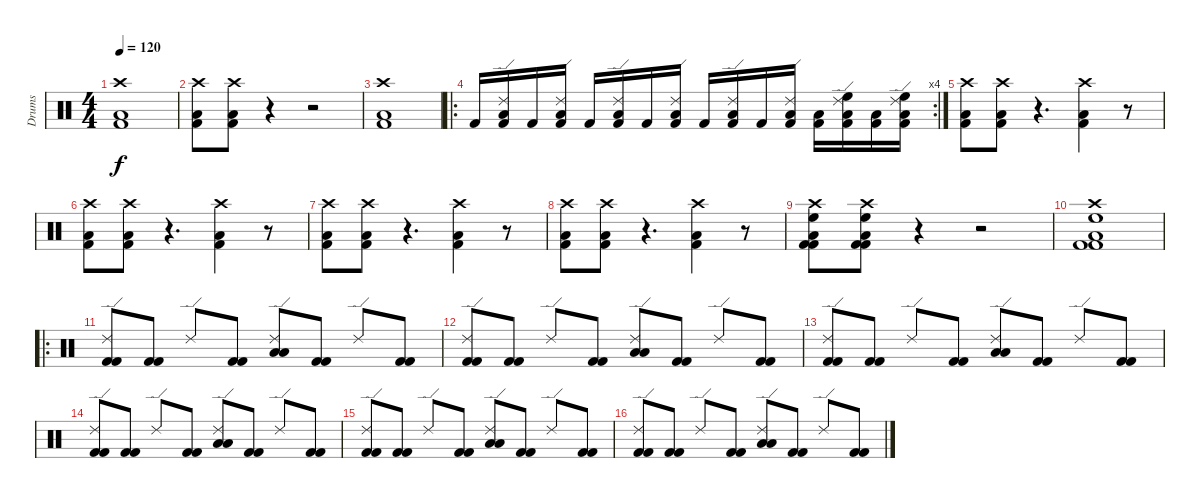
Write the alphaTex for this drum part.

\track ("Drums" "Drums") {instrument percussion}
\staff {score}
\articulation defaults
\ts (4 4)
\tempo 120
\clef neutral
\ks c
("Crash high (hit)" "Low Tom (hit)" "Kick (hit) 2").1{dy f} |
("Crash high (hit)" "Low Tom (hit)" "Kick (hit) 2").8 ("Crash high (hit)" "Low Tom (hit)" "Kick (hit) 2").8 r.4 r.2 |
("Crash high (hit)" "Low Tom (hit)" "Kick (hit) 2").1 |
\ro
\rc 4 "Kick (hit) 2".16
("Ride (edge) 2" "Low Tom (hit)" "Kick (hit) 2").16 "Kick (hit) 2".16 ("Ride (edge) 2" "Low Tom (hit)" "Kick (hit) 2").16 "Kick (hit) 2".16 ("Ride (edge) 2" "Low Tom (hit)" "Kick (hit) 2").16 "Kick (hit) 2".16 ("Ride (edge) 2" "Low Tom (hit)" "Kick (hit) 2").16 "Kick (hit) 2".16 ("Ride (edge) 2" "Low Tom (hit)" "Kick (hit) 2").16 "Kick (hit) 2".16 ("Ride (edge) 2" "Low Tom (hit)" "Kick (hit) 2").16 ("Low Floor Tom (hit)" "Kick (hit) 2").16 ("Ride (edge) 2" "High Floor Tom (hit)" "Low Floor Tom (hit)" "Kick (hit) 2").16 ("Low Floor Tom (hit)" "Kick (hit) 2").16 ("Ride (edge) 2" "High Floor Tom (hit)" "Low Floor Tom (hit)" "Kick (hit) 2").16 |
("Crash high (hit)" "Low Tom (hit)" "Kick (hit) 2").8 ("Crash high (hit)" "Low Tom (hit)" "Kick (hit) 2").8 r.4{d} ("Crash high (hit)" "Low Tom (hit)" "Kick (hit) 2").4 r.8 |
("Crash high (hit)" "Low Tom (hit)" "Kick (hit) 2").8 ("Crash high (hit)" "Low Tom (hit)" "Kick (hit) 2").8 r.4{d} ("Crash high (hit)" "Low Tom (hit)" "Kick (hit) 2").4 r.8 |
("Crash high (hit)" "Low Tom (hit)" "Kick (hit) 2").8 ("Crash high (hit)" "Low Tom (hit)" "Kick (hit) 2").8 r.4{d} ("Crash high (hit)" "Low Tom (hit)" "Kick (hit) 2").4 r.8 |
("Crash high (hit)" "Low Tom (hit)" "Kick (hit) 2").8 ("Crash high (hit)" "Low Tom (hit)" "Kick (hit) 2").8 r.4{d} ("Crash high (hit)" "Low Tom (hit)" "Kick (hit) 2").4 r.8 |
("Crash high (hit)" "Low Floor Tom (hit)" "High Floor Tom (hit)" "Kick (hit) 2" "Kick (hit) 2").8 ("Crash high (hit)" "Low Floor Tom (hit)" "High Floor Tom (hit)" "Kick (hit) 2" "Kick (hit) 2").8 r.4 r.2 |
("High Floor Tom (hit)" "Crash high (hit)" "Low Floor Tom (hit)" "Kick (hit) 2" "Kick (hit) 2").1 |
\ro
("Ride (edge) 2" "Kick (hit) 2" "Kick (hit) 2").8 ("Kick (hit) 2" "Kick (hit) 2").8 "Ride (edge) 2".8 ("Kick (hit) 2" "Kick (hit) 2").8 ("Ride (edge) 2" "Low Floor Tom (hit)" "Low Tom (hit)").8 ("Kick (hit) 2" "Kick (hit) 2").8 "Ride (edge) 2".8 ("Kick (hit) 2" "Kick (hit) 2").8 |
("Ride (edge) 2" "Kick (hit) 2" "Kick (hit) 2").8 ("Kick (hit) 2" "Kick (hit) 2").8 "Ride (edge) 2".8 ("Kick (hit) 2" "Kick (hit) 2").8 ("Ride (edge) 2" "Low Floor Tom (hit)" "Low Tom (hit)").8 ("Kick (hit) 2" "Kick (hit) 2").8 "Ride (edge) 2".8 ("Kick (hit) 2" "Kick (hit) 2").8 |
("Ride (edge) 2" "Kick (hit) 2" "Kick (hit) 2").8 ("Kick (hit) 2" "Kick (hit) 2").8 "Ride (edge) 2".8 ("Kick (hit) 2" "Kick (hit) 2").8 ("Ride (edge) 2" "Low Floor Tom (hit)" "Low Tom (hit)").8 ("Kick (hit) 2" "Kick (hit) 2").8 "Ride (edge) 2".8 ("Kick (hit) 2" "Kick (hit) 2").8 |
("Ride (edge) 2" "Kick (hit) 2" "Kick (hit) 2").8 ("Kick (hit) 2" "Kick (hit) 2").8 "Ride (edge) 2".8 ("Kick (hit) 2" "Kick (hit) 2").8 ("Ride (edge) 2" "Low Floor Tom (hit)" "Low Tom (hit)").8 ("Kick (hit) 2" "Kick (hit) 2").8 "Ride (edge) 2".8 ("Kick (hit) 2" "Kick (hit) 2").8 |
("Ride (edge) 2" "Kick (hit) 2" "Kick (hit) 2").8 ("Kick (hit) 2" "Kick (hit) 2").8 "Ride (edge) 2".8 ("Kick (hit) 2" "Kick (hit) 2").8 ("Ride (edge) 2" "Low Floor Tom (hit)" "Low Tom (hit)").8 ("Kick (hit) 2" "Kick (hit) 2").8 "Ride (edge) 2".8 ("Kick (hit) 2" "Kick (hit) 2").8 |
("Ride (edge) 2" "Kick (hit) 2" "Kick (hit) 2").8 ("Kick (hit) 2" "Kick (hit) 2").8 "Ride (edge) 2".8 ("Kick (hit) 2" "Kick (hit) 2").8 ("Ride (edge) 2" "Low Floor Tom (hit)" "Low Tom (hit)").8 ("Kick (hit) 2" "Kick (hit) 2").8 "Ride (edge) 2".8 ("Kick (hit) 2" "Kick (hit) 2").8
